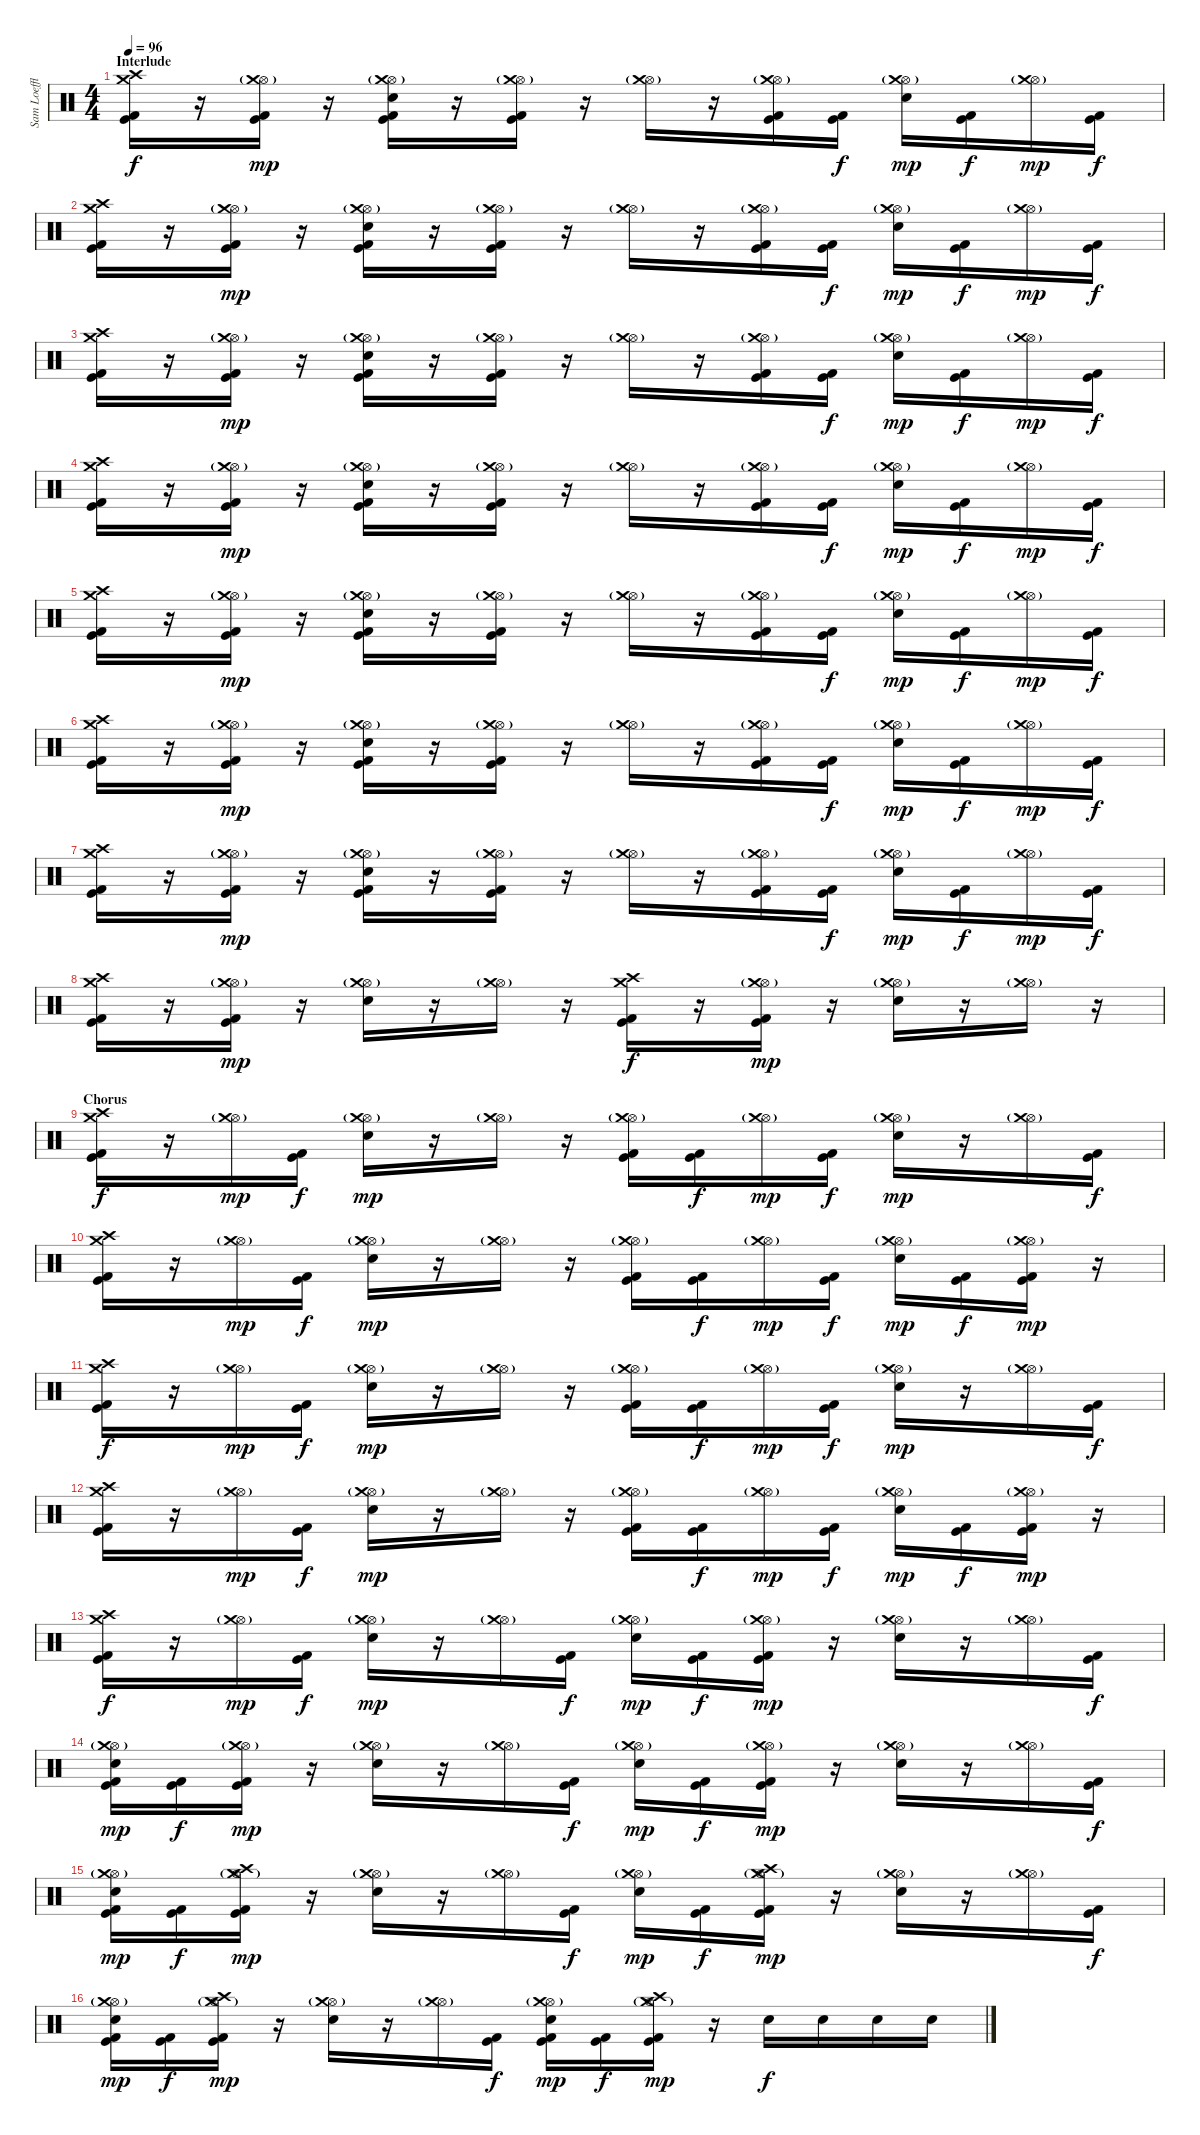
\track ("Sam Loeffler - Drums" "Sam Loeffl") {instrument percussion}
\staff {score}
\articulation defaults
\ts (4 4)
\section ("" "Interlude")
\tempo 96
\clef neutral
\ks c
("Crash high (hit)" "Crash medium (hit)" "Kick (hit)" "Kick (hit) 2").16{dy f} r.16 ("Hi-Hat (open)" "Crash medium (hit)"{g} "Kick (hit)" "Kick (hit) 2").16{dy mp} r.16 ("Hi-Hat (open)" "Crash medium (hit)"{g} "Electric Snare (hit)" "Kick (hit)" "Kick (hit) 2").16 r.16 ("Hi-Hat (open)" "Crash medium (hit)"{g} "Kick (hit)" "Kick (hit) 2").16 r.16 ("Hi-Hat (open)" "Crash medium (hit)"{g}).16 r.16 ("Hi-Hat (open)" "Crash medium (hit)"{g} "Kick (hit)" "Kick (hit) 2").16 ("Kick (hit)" "Kick (hit) 2").16{dy f} ("Hi-Hat (open)" "Crash medium (hit)"{g} "Electric Snare (hit)").16{dy mp} ("Kick (hit)" "Kick (hit) 2").16{dy f} ("Hi-Hat (open)" "Crash medium (hit)"{g}).16{dy mp} ("Kick (hit)" "Kick (hit) 2").16{dy f} |
("Crash high (hit)" "Crash medium (hit)" "Kick (hit)" "Kick (hit) 2").16 r.16 ("Hi-Hat (open)" "Crash medium (hit)"{g} "Kick (hit)" "Kick (hit) 2").16{dy mp} r.16 ("Hi-Hat (open)" "Crash medium (hit)"{g} "Electric Snare (hit)" "Kick (hit)" "Kick (hit) 2").16 r.16 ("Hi-Hat (open)" "Crash medium (hit)"{g} "Kick (hit)" "Kick (hit) 2").16 r.16 ("Hi-Hat (open)" "Crash medium (hit)"{g}).16 r.16 ("Hi-Hat (open)" "Crash medium (hit)"{g} "Kick (hit)" "Kick (hit) 2").16 ("Kick (hit)" "Kick (hit) 2").16{dy f} ("Hi-Hat (open)" "Crash medium (hit)"{g} "Electric Snare (hit)").16{dy mp} ("Kick (hit)" "Kick (hit) 2").16{dy f} ("Hi-Hat (open)" "Crash medium (hit)"{g}).16{dy mp} ("Kick (hit)" "Kick (hit) 2").16{dy f} |
("Crash high (hit)" "Crash medium (hit)" "Kick (hit)" "Kick (hit) 2").16 r.16 ("Hi-Hat (open)" "Crash medium (hit)"{g} "Kick (hit)" "Kick (hit) 2").16{dy mp} r.16 ("Hi-Hat (open)" "Crash medium (hit)"{g} "Electric Snare (hit)" "Kick (hit)" "Kick (hit) 2").16 r.16 ("Hi-Hat (open)" "Crash medium (hit)"{g} "Kick (hit)" "Kick (hit) 2").16 r.16 ("Hi-Hat (open)" "Crash medium (hit)"{g}).16 r.16 ("Hi-Hat (open)" "Crash medium (hit)"{g} "Kick (hit)" "Kick (hit) 2").16 ("Kick (hit)" "Kick (hit) 2").16{dy f} ("Hi-Hat (open)" "Crash medium (hit)"{g} "Electric Snare (hit)").16{dy mp} ("Kick (hit)" "Kick (hit) 2").16{dy f} ("Hi-Hat (open)" "Crash medium (hit)"{g}).16{dy mp} ("Kick (hit)" "Kick (hit) 2").16{dy f} |
("Crash high (hit)" "Crash medium (hit)" "Kick (hit)" "Kick (hit) 2").16 r.16 ("Hi-Hat (open)" "Crash medium (hit)"{g} "Kick (hit)" "Kick (hit) 2").16{dy mp} r.16 ("Hi-Hat (open)" "Crash medium (hit)"{g} "Electric Snare (hit)" "Kick (hit)" "Kick (hit) 2").16 r.16 ("Hi-Hat (open)" "Crash medium (hit)"{g} "Kick (hit)" "Kick (hit) 2").16 r.16 ("Hi-Hat (open)" "Crash medium (hit)"{g}).16 r.16 ("Hi-Hat (open)" "Crash medium (hit)"{g} "Kick (hit)" "Kick (hit) 2").16 ("Kick (hit)" "Kick (hit) 2").16{dy f} ("Hi-Hat (open)" "Crash medium (hit)"{g} "Electric Snare (hit)").16{dy mp} ("Kick (hit)" "Kick (hit) 2").16{dy f} ("Hi-Hat (open)" "Crash medium (hit)"{g}).16{dy mp} ("Kick (hit)" "Kick (hit) 2").16{dy f} |
("Crash high (hit)" "Crash medium (hit)" "Kick (hit)" "Kick (hit) 2").16 r.16 ("Hi-Hat (open)" "Crash medium (hit)"{g} "Kick (hit)" "Kick (hit) 2").16{dy mp} r.16 ("Hi-Hat (open)" "Crash medium (hit)"{g} "Electric Snare (hit)" "Kick (hit)" "Kick (hit) 2").16 r.16 ("Hi-Hat (open)" "Crash medium (hit)"{g} "Kick (hit)" "Kick (hit) 2").16 r.16 ("Hi-Hat (open)" "Crash medium (hit)"{g}).16 r.16 ("Hi-Hat (open)" "Crash medium (hit)"{g} "Kick (hit)" "Kick (hit) 2").16 ("Kick (hit)" "Kick (hit) 2").16{dy f} ("Hi-Hat (open)" "Crash medium (hit)"{g} "Electric Snare (hit)").16{dy mp} ("Kick (hit)" "Kick (hit) 2").16{dy f} ("Hi-Hat (open)" "Crash medium (hit)"{g}).16{dy mp} ("Kick (hit)" "Kick (hit) 2").16{dy f} |
("Crash high (hit)" "Crash medium (hit)" "Kick (hit)" "Kick (hit) 2").16 r.16 ("Hi-Hat (open)" "Crash medium (hit)"{g} "Kick (hit)" "Kick (hit) 2").16{dy mp} r.16 ("Hi-Hat (open)" "Crash medium (hit)"{g} "Electric Snare (hit)" "Kick (hit)" "Kick (hit) 2").16 r.16 ("Hi-Hat (open)" "Crash medium (hit)"{g} "Kick (hit)" "Kick (hit) 2").16 r.16 ("Hi-Hat (open)" "Crash medium (hit)"{g}).16 r.16 ("Hi-Hat (open)" "Crash medium (hit)"{g} "Kick (hit)" "Kick (hit) 2").16 ("Kick (hit)" "Kick (hit) 2").16{dy f} ("Hi-Hat (open)" "Crash medium (hit)"{g} "Electric Snare (hit)").16{dy mp} ("Kick (hit)" "Kick (hit) 2").16{dy f} ("Hi-Hat (open)" "Crash medium (hit)"{g}).16{dy mp} ("Kick (hit)" "Kick (hit) 2").16{dy f} |
("Crash high (hit)" "Crash medium (hit)" "Kick (hit)" "Kick (hit) 2").16 r.16 ("Hi-Hat (open)" "Crash medium (hit)"{g} "Kick (hit)" "Kick (hit) 2").16{dy mp} r.16 ("Hi-Hat (open)" "Crash medium (hit)"{g} "Electric Snare (hit)" "Kick (hit)" "Kick (hit) 2").16 r.16 ("Hi-Hat (open)" "Crash medium (hit)"{g} "Kick (hit)" "Kick (hit) 2").16 r.16 ("Hi-Hat (open)" "Crash medium (hit)"{g}).16 r.16 ("Hi-Hat (open)" "Crash medium (hit)"{g} "Kick (hit)" "Kick (hit) 2").16 ("Kick (hit)" "Kick (hit) 2").16{dy f} ("Hi-Hat (open)" "Crash medium (hit)"{g} "Electric Snare (hit)").16{dy mp} ("Kick (hit)" "Kick (hit) 2").16{dy f} ("Hi-Hat (open)" "Crash medium (hit)"{g}).16{dy mp} ("Kick (hit)" "Kick (hit) 2").16{dy f} |
("Crash high (hit)" "Crash medium (hit)" "Kick (hit)" "Kick (hit) 2").16 r.16 ("Hi-Hat (open)" "Crash medium (hit)"{g} "Kick (hit)" "Kick (hit) 2").16{dy mp} r.16 ("Hi-Hat (open)" "Crash medium (hit)"{g} "Electric Snare (hit)").16 r.16 ("Hi-Hat (open)" "Crash medium (hit)"{g}).16 r.16 ("Crash high (hit)" "Crash medium (hit)" "Kick (hit)" "Kick (hit) 2").16{dy f} r.16 ("Hi-Hat (open)" "Crash medium (hit)"{g} "Kick (hit)" "Kick (hit) 2").16{dy mp} r.16 ("Hi-Hat (open)" "Crash medium (hit)"{g} "Electric Snare (hit)").16 r.16 ("Hi-Hat (open)" "Crash medium (hit)"{g}).16 r.16 |
\section ("" "Chorus")
("Crash high (hit)" "Crash medium (hit)" "Kick (hit)" "Kick (hit) 2").16{dy f} r.16 ("Hi-Hat (open)" "Crash medium (hit)"{g}).16{dy mp} ("Kick (hit)" "Kick (hit) 2").16{dy f} ("Hi-Hat (open)" "Crash medium (hit)"{g} "Electric Snare (hit)").16{dy mp} r.16 ("Hi-Hat (open)" "Crash medium (hit)"{g}).16 r.16 ("Hi-Hat (open)" "Crash medium (hit)"{g} "Kick (hit)" "Kick (hit) 2").16 ("Kick (hit)" "Kick (hit) 2").16{dy f} ("Hi-Hat (open)" "Crash medium (hit)"{g}).16{dy mp} ("Kick (hit)" "Kick (hit) 2").16{dy f} ("Hi-Hat (open)" "Crash medium (hit)"{g} "Electric Snare (hit)").16{dy mp} r.16 ("Hi-Hat (open)" "Crash medium (hit)"{g}).16 ("Kick (hit)" "Kick (hit) 2").16{dy f} |
("Crash high (hit)" "Crash medium (hit)" "Kick (hit)" "Kick (hit) 2").16 r.16 ("Hi-Hat (open)" "Crash medium (hit)"{g}).16{dy mp} ("Kick (hit)" "Kick (hit) 2").16{dy f} ("Hi-Hat (open)" "Crash medium (hit)"{g} "Electric Snare (hit)").16{dy mp} r.16 ("Hi-Hat (open)" "Crash medium (hit)"{g}).16 r.16 ("Hi-Hat (open)" "Crash medium (hit)"{g} "Kick (hit)" "Kick (hit) 2").16 ("Kick (hit)" "Kick (hit) 2").16{dy f} ("Hi-Hat (open)" "Crash medium (hit)"{g}).16{dy mp} ("Kick (hit)" "Kick (hit) 2").16{dy f} ("Hi-Hat (open)" "Crash medium (hit)"{g} "Electric Snare (hit)").16{dy mp} ("Kick (hit)" "Kick (hit) 2").16{dy f} ("Hi-Hat (open)" "Crash medium (hit)"{g} "Kick (hit)" "Kick (hit) 2").16{dy mp} r.16 |
("Crash high (hit)" "Crash medium (hit)" "Kick (hit)" "Kick (hit) 2").16{dy f} r.16 ("Hi-Hat (open)" "Crash medium (hit)"{g}).16{dy mp} ("Kick (hit)" "Kick (hit) 2").16{dy f} ("Hi-Hat (open)" "Crash medium (hit)"{g} "Electric Snare (hit)").16{dy mp} r.16 ("Hi-Hat (open)" "Crash medium (hit)"{g}).16 r.16 ("Hi-Hat (open)" "Crash medium (hit)"{g} "Kick (hit)" "Kick (hit) 2").16 ("Kick (hit)" "Kick (hit) 2").16{dy f} ("Hi-Hat (open)" "Crash medium (hit)"{g}).16{dy mp} ("Kick (hit)" "Kick (hit) 2").16{dy f} ("Hi-Hat (open)" "Crash medium (hit)"{g} "Electric Snare (hit)").16{dy mp} r.16 ("Hi-Hat (open)" "Crash medium (hit)"{g}).16 ("Kick (hit)" "Kick (hit) 2").16{dy f} |
("Crash high (hit)" "Crash medium (hit)" "Kick (hit)" "Kick (hit) 2").16 r.16 ("Hi-Hat (open)" "Crash medium (hit)"{g}).16{dy mp} ("Kick (hit)" "Kick (hit) 2").16{dy f} ("Hi-Hat (open)" "Crash medium (hit)"{g} "Electric Snare (hit)").16{dy mp} r.16 ("Hi-Hat (open)" "Crash medium (hit)"{g}).16 r.16 ("Hi-Hat (open)" "Crash medium (hit)"{g} "Kick (hit)" "Kick (hit) 2").16 ("Kick (hit)" "Kick (hit) 2").16{dy f} ("Hi-Hat (open)" "Crash medium (hit)"{g}).16{dy mp} ("Kick (hit)" "Kick (hit) 2").16{dy f} ("Hi-Hat (open)" "Crash medium (hit)"{g} "Electric Snare (hit)").16{dy mp} ("Kick (hit)" "Kick (hit) 2").16{dy f} ("Hi-Hat (open)" "Crash medium (hit)"{g} "Kick (hit)" "Kick (hit) 2").16{dy mp} r.16 |
("Crash high (hit)" "Crash medium (hit)" "Kick (hit)" "Kick (hit) 2").16{dy f} r.16 ("Hi-Hat (open)" "Crash medium (hit)"{g}).16{dy mp} ("Kick (hit)" "Kick (hit) 2").16{dy f} ("Hi-Hat (open)" "Crash medium (hit)"{g} "Electric Snare (hit)").16{dy mp} r.16 ("Hi-Hat (open)" "Crash medium (hit)"{g}).16 ("Kick (hit)" "Kick (hit) 2").16{dy f} ("Hi-Hat (open)" "Crash medium (hit)"{g} "Electric Snare (hit)").16{dy mp} ("Kick (hit)" "Kick (hit) 2").16{dy f} ("Hi-Hat (open)" "Crash medium (hit)"{g} "Kick (hit)" "Kick (hit) 2").16{dy mp} r.16 ("Hi-Hat (open)" "Crash medium (hit)"{g} "Electric Snare (hit)").16 r.16 ("Hi-Hat (open)" "Crash medium (hit)"{g}).16 ("Kick (hit)" "Kick (hit) 2").16{dy f} |
("Hi-Hat (open)" "Crash medium (hit)"{g} "Electric Snare (hit)" "Kick (hit)" "Kick (hit) 2").16{dy mp} ("Kick (hit)" "Kick (hit) 2").16{dy f} ("Hi-Hat (open)" "Crash medium (hit)"{g} "Kick (hit)" "Kick (hit) 2").16{dy mp} r.16 ("Hi-Hat (open)" "Crash medium (hit)"{g} "Electric Snare (hit)").16 r.16 ("Hi-Hat (open)" "Crash medium (hit)"{g}).16 ("Kick (hit)" "Kick (hit) 2").16{dy f} ("Hi-Hat (open)" "Crash medium (hit)"{g} "Electric Snare (hit)").16{dy mp} ("Kick (hit)" "Kick (hit) 2").16{dy f} ("Hi-Hat (open)" "Crash medium (hit)"{g} "Kick (hit)" "Kick (hit) 2").16{dy mp} r.16 ("Hi-Hat (open)" "Crash medium (hit)"{g} "Electric Snare (hit)").16 r.16 ("Hi-Hat (open)" "Crash medium (hit)"{g}).16 ("Kick (hit)" "Kick (hit) 2").16{dy f} |
("Hi-Hat (open)" "Crash medium (hit)"{g} "Electric Snare (hit)" "Kick (hit)" "Kick (hit) 2").16{dy mp} ("Kick (hit)" "Kick (hit) 2").16{dy f} ("Hi-Hat (open)" "Crash medium (hit)"{g} "Crash high (hit)" "Kick (hit)" "Kick (hit) 2").16{dy mp} r.16 ("Hi-Hat (open)" "Crash medium (hit)"{g} "Electric Snare (hit)").16 r.16 ("Hi-Hat (open)" "Crash medium (hit)"{g}).16 ("Kick (hit)" "Kick (hit) 2").16{dy f} ("Hi-Hat (open)" "Crash medium (hit)"{g} "Electric Snare (hit)").16{dy mp} ("Kick (hit)" "Kick (hit) 2").16{dy f} ("Hi-Hat (open)" "Crash medium (hit)"{g} "Crash high (hit)" "Kick (hit)" "Kick (hit) 2").16{dy mp} r.16 ("Hi-Hat (open)" "Crash medium (hit)"{g} "Electric Snare (hit)").16 r.16 ("Hi-Hat (open)" "Crash medium (hit)"{g}).16 ("Kick (hit)" "Kick (hit) 2").16{dy f} |
("Hi-Hat (open)" "Crash medium (hit)"{g} "Electric Snare (hit)" "Kick (hit)" "Kick (hit) 2").16{dy mp} ("Kick (hit)" "Kick (hit) 2").16{dy f} ("Hi-Hat (open)" "Crash medium (hit)"{g} "Crash high (hit)" "Kick (hit)" "Kick (hit) 2").16{dy mp} r.16 ("Hi-Hat (open)" "Crash medium (hit)"{g} "Electric Snare (hit)").16 r.16 ("Hi-Hat (open)" "Crash medium (hit)"{g}).16 ("Kick (hit)" "Kick (hit) 2").16{dy f} ("Hi-Hat (open)" "Crash medium (hit)"{g} "Electric Snare (hit)" "Kick (hit)" "Kick (hit) 2").16{dy mp} ("Kick (hit)" "Kick (hit) 2").16{dy f} ("Hi-Hat (open)" "Crash medium (hit)"{g} "Crash high (hit)" "Kick (hit)" "Kick (hit) 2").16{dy mp} r.16 "Electric Snare (hit)".16{dy f} "Electric Snare (hit)".16 "Electric Snare (hit)".16 "Electric Snare (hit)".16
